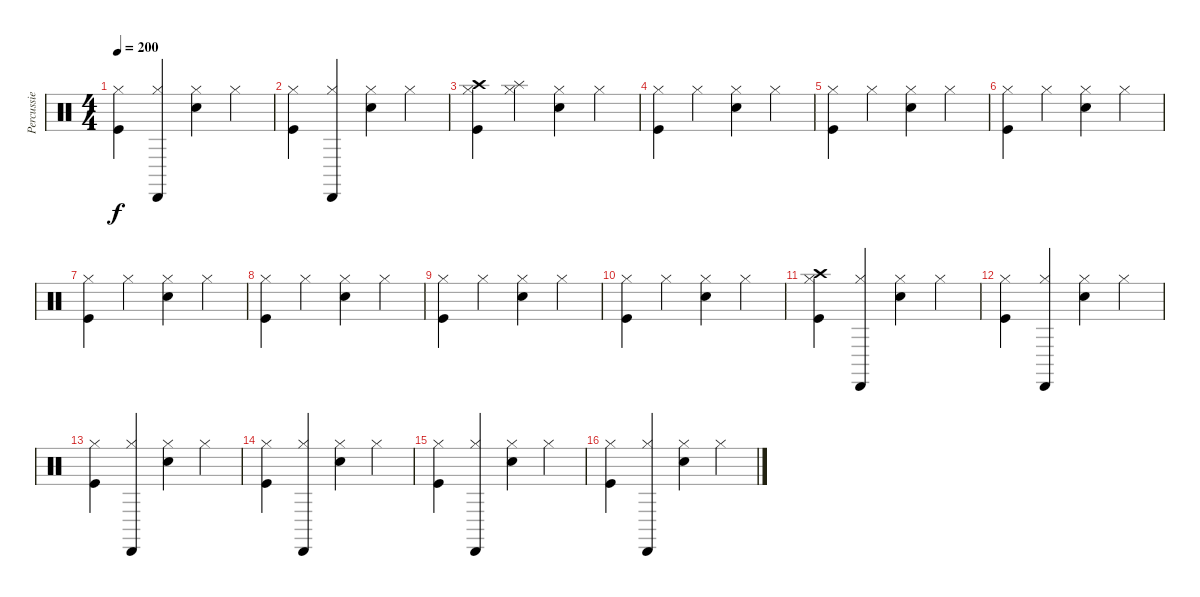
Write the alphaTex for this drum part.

\track ("Percussie" "Percussie") {instrument percussion}
\staff {score}
\articulation defaults
\ts (4 4)
\tempo 200
\clef neutral
\ks c
("Hi-Hat (closed)" "Kick (hit)").4{dy f} ("Cabasa (hit)" "Hi-Hat (closed)").4 ("Electric Snare (hit)" "Hi-Hat (closed)").4 "Hi-Hat (closed)".4 |
("Hi-Hat (closed)" "Kick (hit)").4 ("Cabasa (hit)" "Hi-Hat (closed)").4 ("Electric Snare (hit)" "Hi-Hat (closed)").4 "Hi-Hat (closed)".4 |
("Crash high (hit)" "Hi-Hat (closed)" "Kick (hit)").4 ("Splash (hit)" "Hi-Hat (closed)").4 ("Electric Snare (hit)" "Hi-Hat (closed)").4 "Hi-Hat (closed)".4 |
("Hi-Hat (closed)" "Kick (hit)").4 "Hi-Hat (closed)".4 ("Electric Snare (hit)" "Hi-Hat (closed)").4 "Hi-Hat (closed)".4 |
("Hi-Hat (closed)" "Kick (hit)").4 "Hi-Hat (closed)".4 ("Electric Snare (hit)" "Hi-Hat (closed)").4 "Hi-Hat (closed)".4 |
("Hi-Hat (closed)" "Kick (hit)").4 "Hi-Hat (closed)".4 ("Electric Snare (hit)" "Hi-Hat (closed)").4 "Hi-Hat (closed)".4 |
("Hi-Hat (closed)" "Kick (hit)").4 "Hi-Hat (closed)".4 ("Electric Snare (hit)" "Hi-Hat (closed)").4 "Hi-Hat (closed)".4 |
("Hi-Hat (closed)" "Kick (hit)").4 "Hi-Hat (closed)".4 ("Electric Snare (hit)" "Hi-Hat (closed)").4 "Hi-Hat (closed)".4 |
("Hi-Hat (closed)" "Kick (hit)").4 "Hi-Hat (closed)".4 ("Electric Snare (hit)" "Hi-Hat (closed)").4 "Hi-Hat (closed)".4 |
("Hi-Hat (closed)" "Kick (hit)").4 "Hi-Hat (closed)".4 ("Electric Snare (hit)" "Hi-Hat (closed)").4 "Hi-Hat (closed)".4 |
("Crash high (hit)" "Hi-Hat (closed)" "Kick (hit)").4 ("Cabasa (hit)" "Hi-Hat (closed)").4 ("Electric Snare (hit)" "Hi-Hat (closed)").4 "Hi-Hat (closed)".4 |
("Hi-Hat (closed)" "Kick (hit)").4 ("Cabasa (hit)" "Hi-Hat (closed)").4 ("Electric Snare (hit)" "Hi-Hat (closed)").4 "Hi-Hat (closed)".4 |
("Hi-Hat (closed)" "Kick (hit)").4 ("Cabasa (hit)" "Hi-Hat (closed)").4 ("Electric Snare (hit)" "Hi-Hat (closed)").4 "Hi-Hat (closed)".4 |
("Hi-Hat (closed)" "Kick (hit)").4 ("Cabasa (hit)" "Hi-Hat (closed)").4 ("Electric Snare (hit)" "Hi-Hat (closed)").4 "Hi-Hat (closed)".4 |
("Hi-Hat (closed)" "Kick (hit)").4 ("Cabasa (hit)" "Hi-Hat (closed)").4 ("Electric Snare (hit)" "Hi-Hat (closed)").4 "Hi-Hat (closed)".4 |
("Hi-Hat (closed)" "Kick (hit)").4 ("Cabasa (hit)" "Hi-Hat (closed)").4 ("Electric Snare (hit)" "Hi-Hat (closed)").4 "Hi-Hat (closed)".4
